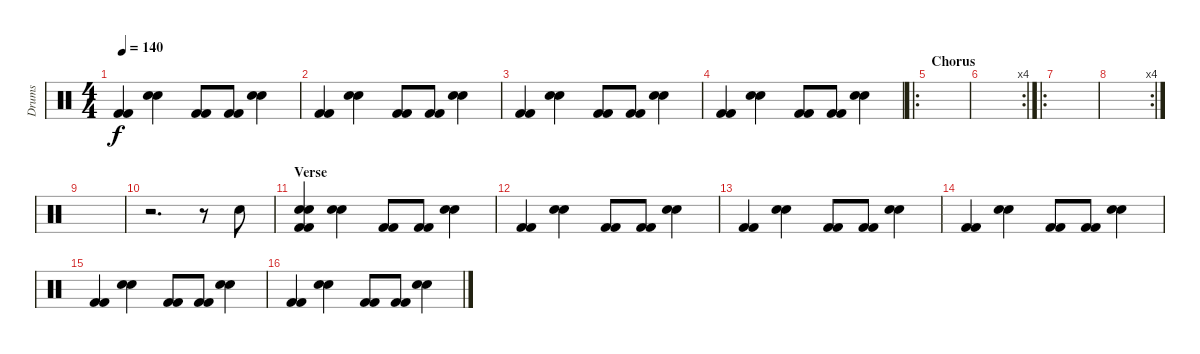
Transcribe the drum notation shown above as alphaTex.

\track ("Drums" "Drums") {instrument percussion}
\staff {score}
\articulation defaults
\ts (4 4)
\tempo 140
\clef neutral
\ks c
("Kick (hit) 2" "Kick (hit) 2").4{dy f} ("Snare (hit) 2" "Snare (hit) 2").4 ("Kick (hit) 2" "Kick (hit) 2").8 ("Kick (hit) 2" "Kick (hit) 2").8 ("Snare (hit) 2" "Snare (hit) 2").4 |
("Kick (hit) 2" "Kick (hit) 2").4 ("Snare (hit) 2" "Snare (hit) 2").4 ("Kick (hit) 2" "Kick (hit) 2").8 ("Kick (hit) 2" "Kick (hit) 2").8 ("Snare (hit) 2" "Snare (hit) 2").4 |
("Kick (hit) 2" "Kick (hit) 2").4 ("Snare (hit) 2" "Snare (hit) 2").4 ("Kick (hit) 2" "Kick (hit) 2").8 ("Kick (hit) 2" "Kick (hit) 2").8 ("Snare (hit) 2" "Snare (hit) 2").4 |
("Kick (hit) 2" "Kick (hit) 2").4 ("Snare (hit) 2" "Snare (hit) 2").4 ("Kick (hit) 2" "Kick (hit) 2").8 ("Kick (hit) 2" "Kick (hit) 2").8 ("Snare (hit) 2" "Snare (hit) 2").4 |
\ro
\section ("" "Chorus")
|
\rc 4
|
\ro
|
\rc 4
|
|
r.2{d} r.8 "Snare (hit) 2".8 |
\section ("" "Verse")
("Snare (hit) 2" "Snare (hit) 2" "Kick (hit) 2" "Kick (hit) 2").4 ("Snare (hit) 2" "Snare (hit) 2").4 ("Kick (hit) 2" "Kick (hit) 2").8 ("Kick (hit) 2" "Kick (hit) 2").8 ("Snare (hit) 2" "Snare (hit) 2").4 |
("Kick (hit) 2" "Kick (hit) 2").4 ("Snare (hit) 2" "Snare (hit) 2").4 ("Kick (hit) 2" "Kick (hit) 2").8 ("Kick (hit) 2" "Kick (hit) 2").8 ("Snare (hit) 2" "Snare (hit) 2").4 |
("Kick (hit) 2" "Kick (hit) 2").4 ("Snare (hit) 2" "Snare (hit) 2").4 ("Kick (hit) 2" "Kick (hit) 2").8 ("Kick (hit) 2" "Kick (hit) 2").8 ("Snare (hit) 2" "Snare (hit) 2").4 |
("Kick (hit) 2" "Kick (hit) 2").4 ("Snare (hit) 2" "Snare (hit) 2").4 ("Kick (hit) 2" "Kick (hit) 2").8 ("Kick (hit) 2" "Kick (hit) 2").8 ("Snare (hit) 2" "Snare (hit) 2").4 |
("Kick (hit) 2" "Kick (hit) 2").4 ("Snare (hit) 2" "Snare (hit) 2").4 ("Kick (hit) 2" "Kick (hit) 2").8 ("Kick (hit) 2" "Kick (hit) 2").8 ("Snare (hit) 2" "Snare (hit) 2").4 |
("Kick (hit) 2" "Kick (hit) 2").4 ("Snare (hit) 2" "Snare (hit) 2").4 ("Kick (hit) 2" "Kick (hit) 2").8 ("Kick (hit) 2" "Kick (hit) 2").8 ("Snare (hit) 2" "Snare (hit) 2").4
